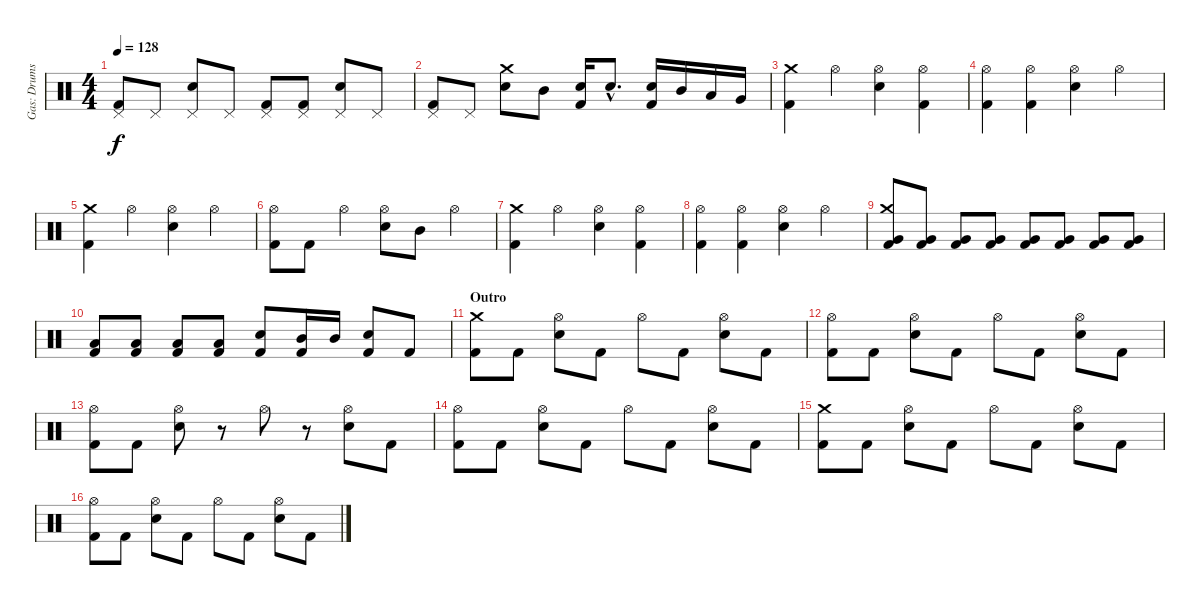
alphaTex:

\track ("Gas: Drums" "Gas: Drums") {instrument percussion}
\staff {score}
\articulation defaults
\ts (4 4)
\tempo 128
\clef neutral
\ks c
("Pedal Hi-Hat (hit)" "Kick (hit) 2").8{dy f} "Pedal Hi-Hat (hit)".8 ("Pedal Hi-Hat (hit)" "Electric Snare (hit)").8 "Pedal Hi-Hat (hit)".8 ("Pedal Hi-Hat (hit)" "Kick (hit) 2").8 ("Pedal Hi-Hat (hit)" "Kick (hit) 2").8 ("Pedal Hi-Hat (hit)" "Electric Snare (hit)").8 "Pedal Hi-Hat (hit)".8 |
("Pedal Hi-Hat (hit)" "Kick (hit) 2").8 "Pedal Hi-Hat (hit)".8 ("Crash medium (hit)" "Electric Snare (hit)").8 "Mid Tom (hit)".8 ("Electric Snare (hit)" "Kick (hit) 2").16 "Electric Snare (hit)"{hac}.8{d} ("Electric Snare (hit)" "Kick (hit) 2").16 "Mid Tom (hit)".16 "Low Tom (hit)".16 "Very Low Tom (hit)".16 |
("Crash medium (hit)" "Kick (hit) 2").4 "Hi-Hat (open)".4 ("Hi-Hat (open)" "Electric Snare (hit)").4 ("Hi-Hat (open)" "Kick (hit) 2").4 |
("Hi-Hat (open)" "Kick (hit) 2").4 ("Hi-Hat (open)" "Kick (hit) 2").4 ("Hi-Hat (open)" "Electric Snare (hit)").4 "Hi-Hat (open)".4 |
("Crash medium (hit)" "Kick (hit) 2").4 "Hi-Hat (open)".4 ("Hi-Hat (open)" "Electric Snare (hit)").4 "Hi-Hat (open)".4 |
("Hi-Hat (open)" "Kick (hit) 2").8 "Kick (hit) 2".8 "Hi-Hat (open)".4 ("Hi-Hat (open)" "Electric Snare (hit)").8 "Mid Tom (hit)".8 "Hi-Hat (open)".4 |
("Crash medium (hit)" "Kick (hit) 2").4 "Hi-Hat (open)".4 ("Hi-Hat (open)" "Electric Snare (hit)").4 ("Hi-Hat (open)" "Kick (hit) 2").4 |
("Hi-Hat (open)" "Kick (hit) 2").4 ("Hi-Hat (open)" "Kick (hit) 2").4 ("Hi-Hat (open)" "Electric Snare (hit)").4 "Hi-Hat (open)".4 |
("Crash medium (hit)" "Very Low Tom (hit)" "Kick (hit) 2").8 ("Very Low Tom (hit)" "Kick (hit) 2").8 ("Very Low Tom (hit)" "Kick (hit) 2").8 ("Very Low Tom (hit)" "Kick (hit) 2").8 ("Very Low Tom (hit)" "Kick (hit) 2").8 ("Very Low Tom (hit)" "Kick (hit) 2").8 ("Very Low Tom (hit)" "Kick (hit) 2").8 ("Very Low Tom (hit)" "Kick (hit) 2").8 |
("Low Tom (hit)" "Kick (hit) 2").8 ("Low Tom (hit)" "Kick (hit) 2").8 ("Low Tom (hit)" "Kick (hit) 2").8 ("Low Tom (hit)" "Kick (hit) 2").8 ("Electric Snare (hit)" "Kick (hit) 2").8 ("Mid Tom (hit)" "Kick (hit) 2").16 "Mid Tom (hit)".16 ("Electric Snare (hit)" "Kick (hit) 2").8 "Kick (hit) 2".8 |
\section ("" "Outro")
("Crash medium (hit)" "Kick (hit) 2").8 "Kick (hit) 2".8 ("Hi-Hat (open)" "Electric Snare (hit)").8 "Kick (hit) 2".8 "Hi-Hat (open)".8 "Kick (hit) 2".8 ("Hi-Hat (open)" "Electric Snare (hit)").8 "Kick (hit) 2".8 |
("Hi-Hat (open)" "Kick (hit) 2").8 "Kick (hit) 2".8 ("Hi-Hat (open)" "Electric Snare (hit)").8 "Kick (hit) 2".8 "Hi-Hat (open)".8 "Kick (hit) 2".8 ("Hi-Hat (open)" "Electric Snare (hit)").8 "Kick (hit) 2".8 |
("Hi-Hat (open)" "Kick (hit) 2").8 "Kick (hit) 2".8 ("Hi-Hat (open)" "Electric Snare (hit)").8 r.8 "Hi-Hat (open)".8 r.8 ("Hi-Hat (open)" "Electric Snare (hit)").8 "Kick (hit) 2".8 |
("Hi-Hat (open)" "Kick (hit) 2").8 "Kick (hit) 2".8 ("Hi-Hat (open)" "Electric Snare (hit)").8 "Kick (hit) 2".8 "Hi-Hat (open)".8 "Kick (hit) 2".8 ("Hi-Hat (open)" "Electric Snare (hit)").8 "Kick (hit) 2".8 |
("Crash medium (hit)" "Kick (hit) 2").8 "Kick (hit) 2".8 ("Hi-Hat (open)" "Electric Snare (hit)").8 "Kick (hit) 2".8 "Hi-Hat (open)".8 "Kick (hit) 2".8 ("Hi-Hat (open)" "Electric Snare (hit)").8 "Kick (hit) 2".8 |
("Hi-Hat (open)" "Kick (hit) 2").8 "Kick (hit) 2".8 ("Hi-Hat (open)" "Electric Snare (hit)").8 "Kick (hit) 2".8 "Hi-Hat (open)".8 "Kick (hit) 2".8 ("Hi-Hat (open)" "Electric Snare (hit)").8 "Kick (hit) 2".8
